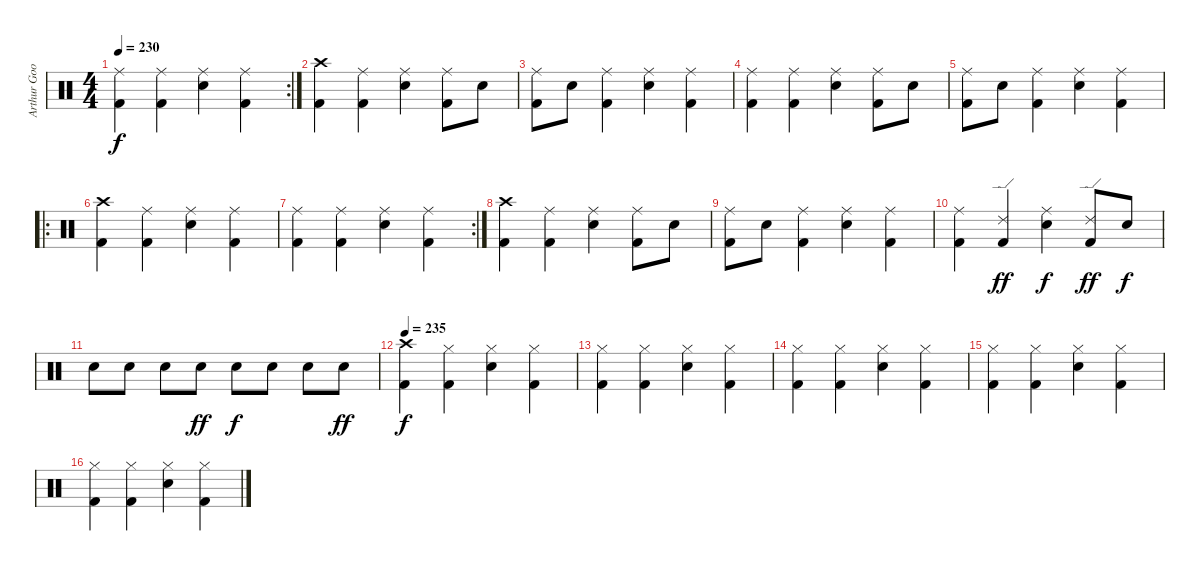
\track ("Arthur Googy" "Arthur Goo") {instrument percussion}
\staff {score}
\articulation defaults
\rc 2
\ts (4 4)
\tempo 230
\clef neutral
\ks c
("Ride (middle)" "Kick (hit) 2").4{dy f} ("Ride (middle)" "Kick (hit) 2").4 ("Ride (middle)" "Electric Snare (hit)").4 ("Ride (middle)" "Kick (hit) 2").4 |
("Crash high (hit)" "Kick (hit) 2").4 ("Ride (middle)" "Kick (hit) 2").4 ("Ride (middle)" "Electric Snare (hit)").4 ("Ride (middle)" "Kick (hit) 2").8 "Electric Snare (hit)".8 |
("Ride (middle)" "Kick (hit) 2").8 "Electric Snare (hit)".8 ("Ride (middle)" "Kick (hit) 2").4 ("Ride (middle)" "Electric Snare (hit)").4 ("Ride (middle)" "Kick (hit) 2").4 |
("Ride (middle)" "Kick (hit) 2").4 ("Ride (middle)" "Kick (hit) 2").4 ("Ride (middle)" "Electric Snare (hit)").4 ("Ride (middle)" "Kick (hit) 2").8 "Electric Snare (hit)".8 |
("Ride (middle)" "Kick (hit) 2").8 "Electric Snare (hit)".8 ("Ride (middle)" "Kick (hit) 2").4 ("Ride (middle)" "Electric Snare (hit)").4 ("Ride (middle)" "Kick (hit) 2").4 |
\ro
("Crash high (hit)" "Kick (hit) 2").4 ("Ride (middle)" "Kick (hit) 2").4 ("Ride (middle)" "Electric Snare (hit)").4 ("Ride (middle)" "Kick (hit) 2").4 |
\rc 2
("Ride (middle)" "Kick (hit) 2").4 ("Ride (middle)" "Kick (hit) 2").4 ("Ride (middle)" "Electric Snare (hit)").4 ("Ride (middle)" "Kick (hit) 2").4 |
("Crash high (hit)" "Kick (hit) 2").4 ("Ride (middle)" "Kick (hit) 2").4 ("Ride (middle)" "Electric Snare (hit)").4 ("Ride (middle)" "Kick (hit) 2").8 "Electric Snare (hit)".8 |
("Ride (middle)" "Kick (hit) 2").8 "Electric Snare (hit)".8 ("Ride (middle)" "Kick (hit) 2").4 ("Ride (middle)" "Electric Snare (hit)").4 ("Ride (middle)" "Kick (hit) 2").4 |
("Ride (middle)" "Kick (hit) 2").4 ("Ride (edge) 2" "Kick (hit) 2").4{dy ff} ("Ride (middle)" "Electric Snare (hit)").4{dy f} ("Ride (edge) 2" "Kick (hit) 2").8{dy ff} "Electric Snare (hit)".8{dy f} |
"Electric Snare (hit)".8 "Electric Snare (hit)".8 "Electric Snare (hit)".8 "Electric Snare (hit)".8{dy ff} "Electric Snare (hit)".8{dy f} "Electric Snare (hit)".8 "Electric Snare (hit)".8 "Electric Snare (hit)".8{dy ff} |
\tempo 235
("Crash high (hit)" "Kick (hit) 2").4{dy f} ("Hi-Hat (closed)" "Kick (hit) 2").4 ("Hi-Hat (closed)" "Electric Snare (hit)").4 ("Hi-Hat (closed)" "Kick (hit) 2").4 |
("Hi-Hat (closed)" "Kick (hit) 2").4 ("Hi-Hat (closed)" "Kick (hit) 2").4 ("Hi-Hat (closed)" "Electric Snare (hit)").4 ("Hi-Hat (closed)" "Kick (hit) 2").4 |
("Hi-Hat (closed)" "Kick (hit) 2").4 ("Hi-Hat (closed)" "Kick (hit) 2").4 ("Hi-Hat (closed)" "Electric Snare (hit)").4 ("Hi-Hat (closed)" "Kick (hit) 2").4 |
("Hi-Hat (closed)" "Kick (hit) 2").4 ("Hi-Hat (closed)" "Kick (hit) 2").4 ("Hi-Hat (closed)" "Electric Snare (hit)").4 ("Hi-Hat (closed)" "Kick (hit) 2").4 |
("Hi-Hat (closed)" "Kick (hit) 2").4 ("Hi-Hat (closed)" "Kick (hit) 2").4 ("Hi-Hat (closed)" "Electric Snare (hit)").4 ("Hi-Hat (closed)" "Kick (hit) 2").4
